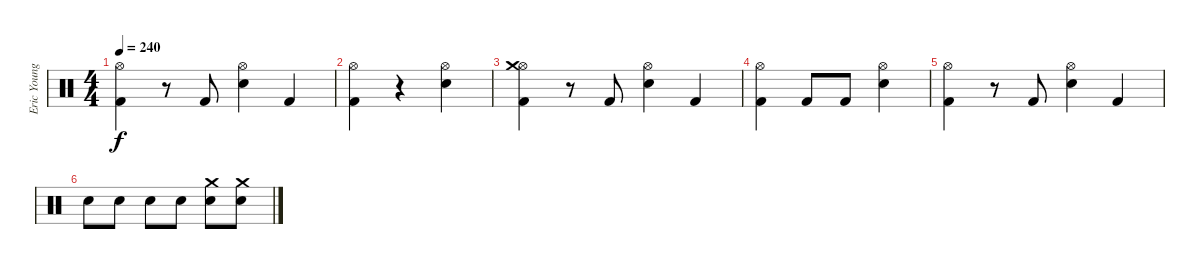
\track ("Eric Young (Drums)" "Eric Young") {instrument percussion}
\staff {score}
\articulation defaults
\ts (4 4)
\tempo 240
\clef neutral
\ks c
("Hi-Hat (open)" "Kick (hit) 2").4{dy f} r.8 "Kick (hit) 2".8 ("Hi-Hat (open)" "Snare (hit) 2").4 "Kick (hit) 2".4 |
("Hi-Hat (open)" "Kick (hit) 2").4 r.4 ("Hi-Hat (open)" "Snare (hit) 2").4 |
("Hi-Hat (open)" "Kick (hit) 2" "Crash medium (hit)").4 r.8 "Kick (hit) 2".8 ("Hi-Hat (open)" "Snare (hit) 2").4 "Kick (hit) 2".4 |
("Hi-Hat (open)" "Kick (hit) 2").4 "Kick (hit) 2".8 "Kick (hit) 2".8 ("Hi-Hat (open)" "Snare (hit) 2").4 |
("Hi-Hat (open)" "Kick (hit) 2").4 r.8 "Kick (hit) 2".8 ("Hi-Hat (open)" "Snare (hit) 2").4 "Kick (hit) 2".4 |
"Snare (hit) 2".8 "Snare (hit) 2".8 "Snare (hit) 2".8 "Snare (hit) 2".8 ("Snare (hit) 2" "Crash medium (hit)").8 ("Snare (hit) 2" "Crash medium (hit)").8
